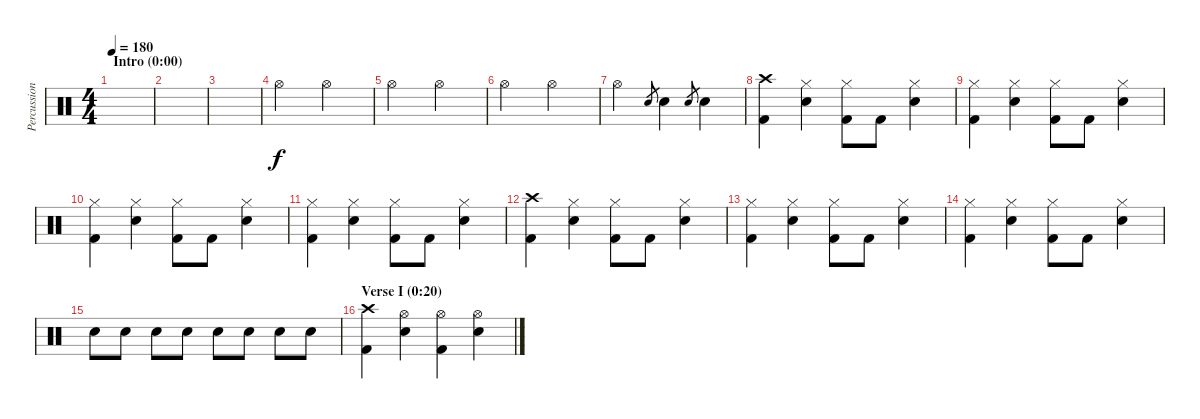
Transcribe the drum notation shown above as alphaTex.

\track ("Percussion" "Percussion") {instrument percussion}
\staff {score}
\articulation defaults
\ts (4 4)
\section ("" "Intro (0:00)")
\tempo 180
\clef neutral
\ks c
|
|
|
"Hi-Hat (open)".2 "Hi-Hat (open)".2 |
"Hi-Hat (open)".2 "Hi-Hat (open)".2 |
"Hi-Hat (open)".2 "Hi-Hat (open)".2 |
"Hi-Hat (open)".2 "Electric Snare (hit)".8{gr} "Electric Snare (hit)".4 "Electric Snare (hit)".8{gr} "Electric Snare (hit)".4 |
("Crash high (hit)" "Kick (hit) 2").4 ("Hi-Hat (closed)" "Electric Snare (hit)").4 ("Hi-Hat (closed)" "Kick (hit) 2").8 "Kick (hit) 2".8 ("Hi-Hat (closed)" "Electric Snare (hit)").4 |
("Hi-Hat (closed)" "Kick (hit) 2").4 ("Hi-Hat (closed)" "Electric Snare (hit)").4 ("Hi-Hat (closed)" "Kick (hit) 2").8 "Kick (hit) 2".8 ("Hi-Hat (closed)" "Electric Snare (hit)").4 |
("Hi-Hat (closed)" "Kick (hit) 2").4 ("Hi-Hat (closed)" "Electric Snare (hit)").4 ("Hi-Hat (closed)" "Kick (hit) 2").8 "Kick (hit) 2".8 ("Hi-Hat (closed)" "Electric Snare (hit)").4 |
("Hi-Hat (closed)" "Kick (hit) 2").4 ("Hi-Hat (closed)" "Electric Snare (hit)").4 ("Hi-Hat (closed)" "Kick (hit) 2").8 "Kick (hit) 2".8 ("Hi-Hat (closed)" "Electric Snare (hit)").4 |
("Crash high (hit)" "Kick (hit) 2").4 ("Hi-Hat (closed)" "Electric Snare (hit)").4 ("Hi-Hat (closed)" "Kick (hit) 2").8 "Kick (hit) 2".8 ("Hi-Hat (closed)" "Electric Snare (hit)").4 |
("Hi-Hat (closed)" "Kick (hit) 2").4 ("Hi-Hat (closed)" "Electric Snare (hit)").4 ("Hi-Hat (closed)" "Kick (hit) 2").8 "Kick (hit) 2".8 ("Hi-Hat (closed)" "Electric Snare (hit)").4 |
("Hi-Hat (closed)" "Kick (hit) 2").4 ("Hi-Hat (closed)" "Electric Snare (hit)").4 ("Hi-Hat (closed)" "Kick (hit) 2").8 "Kick (hit) 2".8 ("Hi-Hat (closed)" "Electric Snare (hit)").4 |
"Electric Snare (hit)".8 "Electric Snare (hit)".8 "Electric Snare (hit)".8 "Electric Snare (hit)".8 "Electric Snare (hit)".8 "Electric Snare (hit)".8 "Electric Snare (hit)".8 "Electric Snare (hit)".8 |
\section ("" "Verse I (0:20)")
("Crash high (hit)" "Kick (hit) 2").4 ("Hi-Hat (open)" "Electric Snare (hit)").4 ("Hi-Hat (open)" "Kick (hit) 2").4 ("Hi-Hat (open)" "Electric Snare (hit)").4
